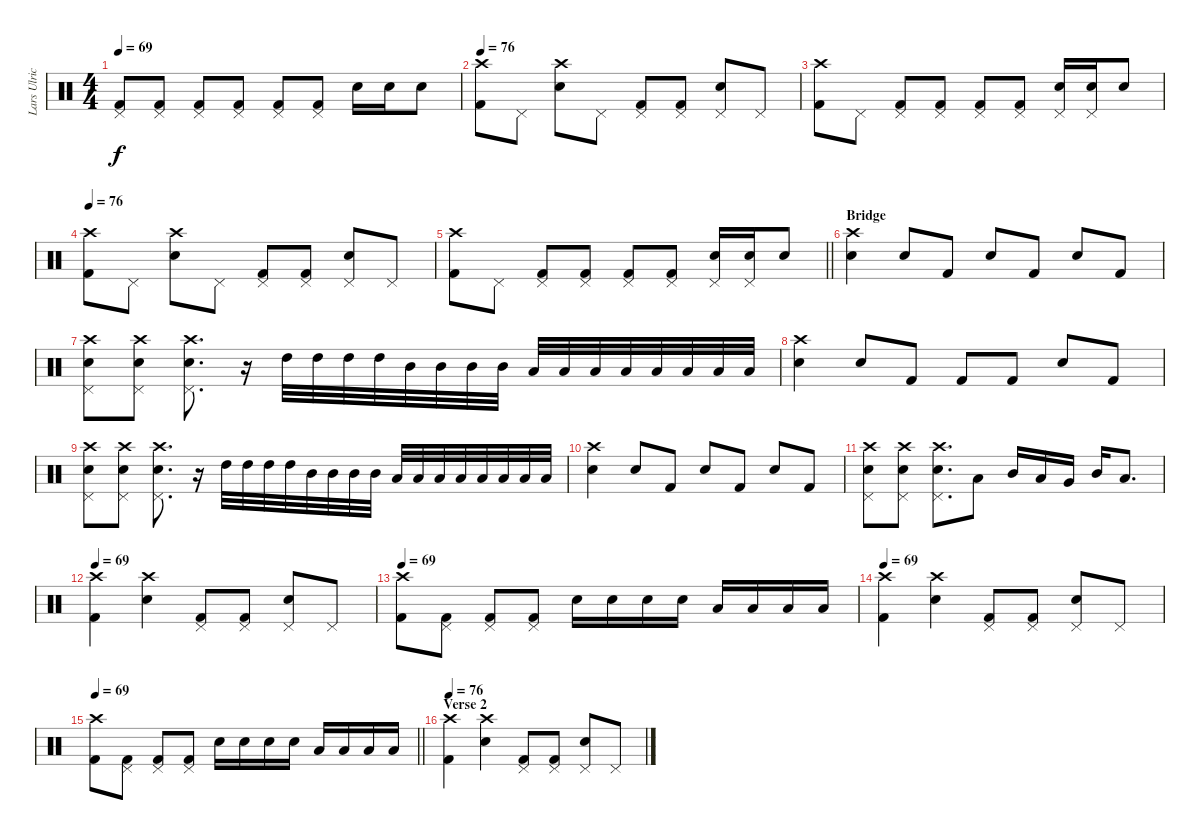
\track ("Lars Ulrich" "Lars Ulric") {instrument percussion}
\staff {score}
\articulation defaults
\ts (4 4)
\tempo 69
\clef neutral
\ks c
("Pedal Hi-Hat (hit)" "Kick (hit) 2").8{dy f} ("Pedal Hi-Hat (hit)" "Kick (hit) 2").8 ("Pedal Hi-Hat (hit)" "Kick (hit) 2").8 ("Pedal Hi-Hat (hit)" "Kick (hit) 2").8 ("Pedal Hi-Hat (hit)" "Kick (hit) 2").8 ("Pedal Hi-Hat (hit)" "Kick (hit) 2").8 "Snare (hit) 2".16 "Snare (hit) 2".16 "Snare (hit) 2".8 |
\tempo 76
("Crash high (hit)" "Kick (hit) 2").8 "Pedal Hi-Hat (hit)".8 ("Crash high (hit)" "Snare (hit) 2").8 "Pedal Hi-Hat (hit)".8 ("Pedal Hi-Hat (hit)" "Kick (hit) 2").8 ("Pedal Hi-Hat (hit)" "Kick (hit) 2").8 ("Pedal Hi-Hat (hit)" "Snare (hit) 2").8 "Pedal Hi-Hat (hit)".8 |
("Crash high (hit)" "Kick (hit) 2").8 "Pedal Hi-Hat (hit)".8 ("Pedal Hi-Hat (hit)" "Kick (hit) 2").8 ("Pedal Hi-Hat (hit)" "Kick (hit) 2").8 ("Pedal Hi-Hat (hit)" "Kick (hit) 2").8 ("Pedal Hi-Hat (hit)" "Kick (hit) 2").8 ("Pedal Hi-Hat (hit)" "Snare (hit) 2").16 ("Pedal Hi-Hat (hit)" "Snare (hit) 2").16 "Snare (hit) 2".8 |
\tempo 76
("Crash high (hit)" "Kick (hit) 2").8 "Pedal Hi-Hat (hit)".8 ("Crash high (hit)" "Snare (hit) 2").8 "Pedal Hi-Hat (hit)".8 ("Pedal Hi-Hat (hit)" "Kick (hit) 2").8 ("Pedal Hi-Hat (hit)" "Kick (hit) 2").8 ("Pedal Hi-Hat (hit)" "Snare (hit) 2").8 "Pedal Hi-Hat (hit)".8 |
\barLineRight lightlight
("Crash high (hit)" "Kick (hit) 2").8 "Pedal Hi-Hat (hit)".8 ("Pedal Hi-Hat (hit)" "Kick (hit) 2").8 ("Pedal Hi-Hat (hit)" "Kick (hit) 2").8 ("Pedal Hi-Hat (hit)" "Kick (hit) 2").8 ("Pedal Hi-Hat (hit)" "Kick (hit) 2").8 ("Pedal Hi-Hat (hit)" "Snare (hit) 2").16 ("Pedal Hi-Hat (hit)" "Snare (hit) 2").16 "Snare (hit) 2".8 |
\section ("" "Bridge")
("Crash high (hit)" "Snare (hit) 2").4 "Snare (hit) 2".8 "Kick (hit) 2".8 "Snare (hit) 2".8 "Kick (hit) 2".8 "Snare (hit) 2".8 "Kick (hit) 2".8 |
("Crash high (hit)" "Pedal Hi-Hat (hit)" "Snare (hit) 2").8 ("Crash high (hit)" "Pedal Hi-Hat (hit)" "Snare (hit) 2").8 ("Crash high (hit)" "Pedal Hi-Hat (hit)" "Snare (hit) 2").8{d} r.16 "High Tom (hit)".32 "High Tom (hit)".32 "High Tom (hit)".32 "High Tom (hit)".32 "Mid Tom (hit)".32 "Mid Tom (hit)".32 "Mid Tom (hit)".32 "Mid Tom (hit)".32 "Low Tom (hit)".32 "Low Tom (hit)".32 "Low Tom (hit)".32 "Low Tom (hit)".32 "Low Floor Tom (hit)".32 "Low Floor Tom (hit)".32 "Low Floor Tom (hit)".32 "Low Floor Tom (hit)".32 |
("Crash high (hit)" "Snare (hit) 2").4 "Snare (hit) 2".8 "Kick (hit) 2".8 "Kick (hit) 2".8 "Kick (hit) 2".8 "Snare (hit) 2".8 "Kick (hit) 2".8 |
("Crash high (hit)" "Pedal Hi-Hat (hit)" "Snare (hit) 2").8 ("Crash high (hit)" "Pedal Hi-Hat (hit)" "Snare (hit) 2").8 ("Crash high (hit)" "Pedal Hi-Hat (hit)" "Snare (hit) 2").8{d} r.16 "High Tom (hit)".32 "High Tom (hit)".32 "High Tom (hit)".32 "High Tom (hit)".32 "Mid Tom (hit)".32 "Mid Tom (hit)".32 "Mid Tom (hit)".32 "Mid Tom (hit)".32 "Low Tom (hit)".32 "Low Tom (hit)".32 "Low Tom (hit)".32 "Low Tom (hit)".32 "Low Floor Tom (hit)".32 "Low Floor Tom (hit)".32 "Low Floor Tom (hit)".32 "Low Floor Tom (hit)".32 |
("Crash high (hit)" "Snare (hit) 2").4 "Snare (hit) 2".8 "Kick (hit) 2".8 "Snare (hit) 2".8 "Kick (hit) 2".8 "Snare (hit) 2".8 "Kick (hit) 2".8 |
("Crash high (hit)" "Pedal Hi-Hat (hit)" "Snare (hit) 2").8 ("Crash high (hit)" "Pedal Hi-Hat (hit)" "Snare (hit) 2").8 ("Crash high (hit)" "Pedal Hi-Hat (hit)" "Snare (hit) 2").8{d} "Low Tom (hit)".8 "Mid Tom (hit)".16 "Low Tom (hit)".16 "Very Low Tom (hit)".16 "Mid Tom (hit)".16 "Low Floor Tom (hit)".8{d} |
\tempo 69
("Crash high (hit)" "Kick (hit) 2").4 ("Crash high (hit)" "Snare (hit) 2").4 ("Pedal Hi-Hat (hit)" "Kick (hit) 2").8 ("Pedal Hi-Hat (hit)" "Kick (hit) 2").8 ("Pedal Hi-Hat (hit)" "Snare (hit) 2").8 "Pedal Hi-Hat (hit)".8 |
\tempo 69
("Crash high (hit)" "Kick (hit) 2").8 ("Pedal Hi-Hat (hit)" "Kick (hit) 2").8 ("Pedal Hi-Hat (hit)" "Kick (hit) 2").8 ("Pedal Hi-Hat (hit)" "Kick (hit) 2").8 "Snare (hit) 2".16 "Snare (hit) 2".16 "Snare (hit) 2".16 "Snare (hit) 2".16 "Low Tom (hit)".16 "Low Tom (hit)".16 "Low Tom (hit)".16 "Low Tom (hit)".16 |
\tempo 69
("Crash high (hit)" "Kick (hit) 2").4 ("Crash high (hit)" "Snare (hit) 2").4 ("Pedal Hi-Hat (hit)" "Kick (hit) 2").8 ("Pedal Hi-Hat (hit)" "Kick (hit) 2").8 ("Pedal Hi-Hat (hit)" "Snare (hit) 2").8 "Pedal Hi-Hat (hit)".8 |
\tempo 69
\barLineRight lightlight
("Crash high (hit)" "Kick (hit) 2").8 ("Pedal Hi-Hat (hit)" "Kick (hit) 2").8 ("Pedal Hi-Hat (hit)" "Kick (hit) 2").8 ("Pedal Hi-Hat (hit)" "Kick (hit) 2").8 "Snare (hit) 2".16 "Snare (hit) 2".16 "Snare (hit) 2".16 "Snare (hit) 2".16 "Low Tom (hit)".16 "Low Tom (hit)".16 "Low Tom (hit)".16 "Low Tom (hit)".16 |
\section ("" "Verse 2")
\tempo 76
("Crash high (hit)" "Kick (hit) 2").4 ("Crash high (hit)" "Snare (hit) 2").4 ("Pedal Hi-Hat (hit)" "Kick (hit) 2").8 ("Pedal Hi-Hat (hit)" "Kick (hit) 2").8 ("Pedal Hi-Hat (hit)" "Snare (hit) 2").8 "Pedal Hi-Hat (hit)".8
